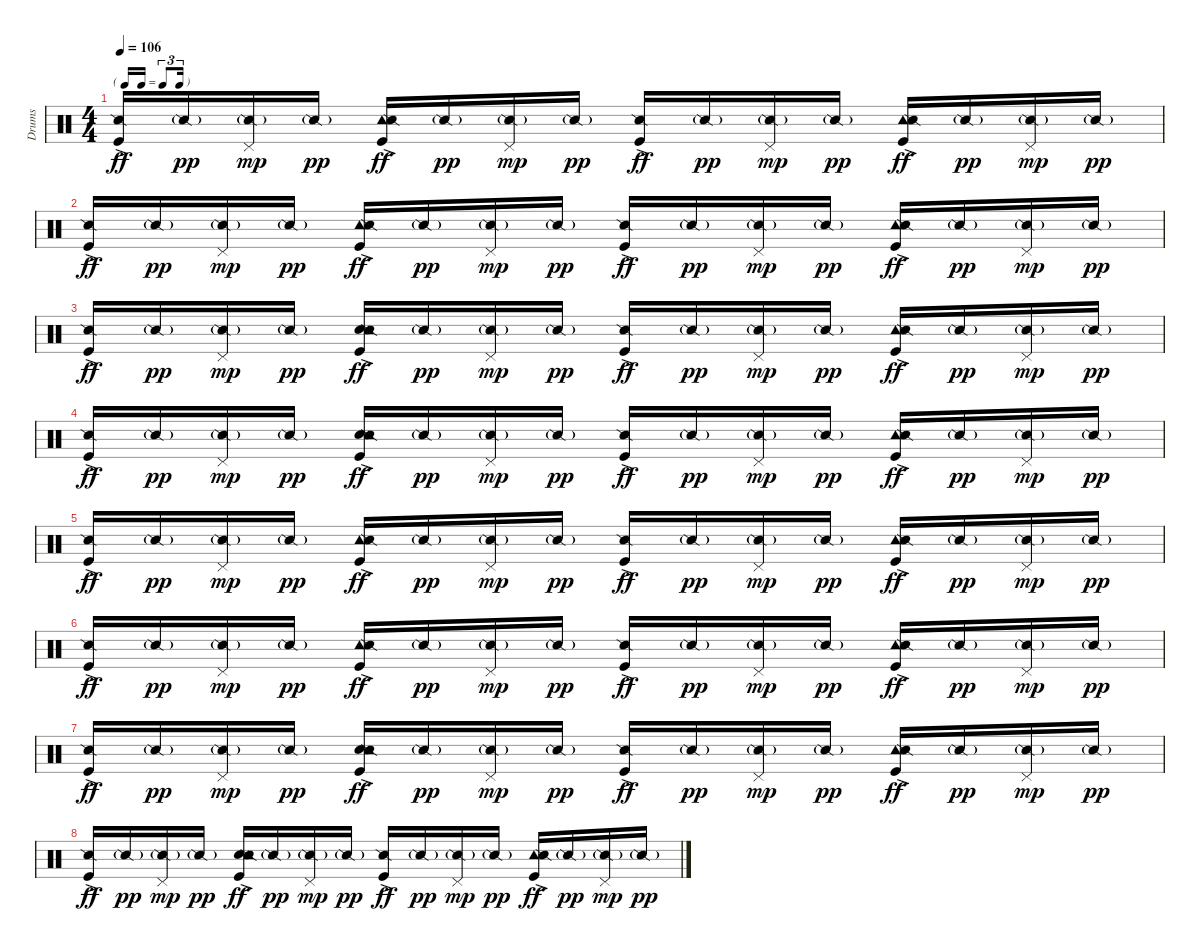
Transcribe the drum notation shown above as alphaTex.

\track ("Drums" "Drums") {instrument percussion}
\staff {score}
\articulation defaults
\ts (4 4)
\tf triplet16th
\tempo 106
\clef neutral
\ks c
("Kick (hit)"{ac} "Snare (side stick) 2").16{dy ff} "Snare (side stick) 2"{g}.16{dy pp} ("Pedal Hi-Hat (hit)" "Snare (side stick) 2"{g}).16{dy mp} "Snare (side stick) 2"{g}.16{dy pp} ("Kick (hit)"{ac} "Tambourine (hit)" "Snare (side stick) 2").16{dy ff} "Snare (side stick) 2"{g}.16{dy pp} ("Pedal Hi-Hat (hit)" "Snare (side stick) 2"{g}).16{dy mp} "Snare (side stick) 2"{g}.16{dy pp} ("Kick (hit)"{ac} "Snare (side stick) 2").16{dy ff} "Snare (side stick) 2"{g}.16{dy pp} ("Pedal Hi-Hat (hit)" "Snare (side stick) 2"{g}).16{dy mp} "Snare (side stick) 2"{g}.16{dy pp} ("Kick (hit)"{ac} "Tambourine (hit)" "Snare (side stick) 2").16{dy ff} "Snare (side stick) 2"{g}.16{dy pp} ("Pedal Hi-Hat (hit)" "Snare (side stick) 2"{g}).16{dy mp} "Snare (side stick) 2"{g}.16{dy pp} |
("Kick (hit)"{ac} "Snare (side stick) 2").16{dy ff} "Snare (side stick) 2"{g}.16{dy pp} ("Pedal Hi-Hat (hit)" "Snare (side stick) 2"{g}).16{dy mp} "Snare (side stick) 2"{g}.16{dy pp} ("Kick (hit)"{ac} "Tambourine (hit)" "Snare (side stick) 2").16{dy ff} "Snare (side stick) 2"{g}.16{dy pp} ("Pedal Hi-Hat (hit)" "Snare (side stick) 2"{g}).16{dy mp} "Snare (side stick) 2"{g}.16{dy pp} ("Kick (hit)"{ac} "Snare (side stick) 2").16{dy ff} "Snare (side stick) 2"{g}.16{dy pp} ("Pedal Hi-Hat (hit)" "Snare (side stick) 2"{g}).16{dy mp} "Snare (side stick) 2"{g}.16{dy pp} ("Kick (hit)"{ac} "Tambourine (hit)" "Snare (side stick) 2").16{dy ff} "Snare (side stick) 2"{g}.16{dy pp} ("Pedal Hi-Hat (hit)" "Snare (side stick) 2"{g}).16{dy mp} "Snare (side stick) 2"{g}.16{dy pp} |
("Kick (hit)"{ac} "Snare (side stick) 2").16{dy ff} "Snare (side stick) 2"{g}.16{dy pp} ("Pedal Hi-Hat (hit)" "Snare (side stick) 2"{g}).16{dy mp} "Snare (side stick) 2"{g}.16{dy pp} ("Kick (hit)"{ac} "Hand Clap (hit)" "Tambourine (hit)" "Snare (side stick) 2").16{dy ff} "Snare (side stick) 2"{g}.16{dy pp} ("Pedal Hi-Hat (hit)" "Snare (side stick) 2"{g}).16{dy mp} "Snare (side stick) 2"{g}.16{dy pp} ("Kick (hit)"{ac} "Snare (side stick) 2").16{dy ff} "Snare (side stick) 2"{g}.16{dy pp} ("Pedal Hi-Hat (hit)" "Snare (side stick) 2"{g}).16{dy mp} "Snare (side stick) 2"{g}.16{dy pp} ("Kick (hit)"{ac} "Tambourine (hit)" "Snare (side stick) 2").16{dy ff} "Snare (side stick) 2"{g}.16{dy pp} ("Pedal Hi-Hat (hit)" "Snare (side stick) 2"{g}).16{dy mp} "Snare (side stick) 2"{g}.16{dy pp} |
("Kick (hit)"{ac} "Snare (side stick) 2").16{dy ff} "Snare (side stick) 2"{g}.16{dy pp} ("Pedal Hi-Hat (hit)" "Snare (side stick) 2"{g}).16{dy mp} "Snare (side stick) 2"{g}.16{dy pp} ("Kick (hit)"{ac} "Hand Clap (hit)" "Tambourine (hit)" "Snare (side stick) 2").16{dy ff} "Snare (side stick) 2"{g}.16{dy pp} ("Pedal Hi-Hat (hit)" "Snare (side stick) 2"{g}).16{dy mp} "Snare (side stick) 2"{g}.16{dy pp} ("Kick (hit)"{ac} "Snare (side stick) 2").16{dy ff} "Snare (side stick) 2"{g}.16{dy pp} ("Pedal Hi-Hat (hit)" "Snare (side stick) 2"{g}).16{dy mp} "Snare (side stick) 2"{g}.16{dy pp} ("Kick (hit)"{ac} "Tambourine (hit)" "Snare (side stick) 2").16{dy ff} "Snare (side stick) 2"{g}.16{dy pp} ("Pedal Hi-Hat (hit)" "Snare (side stick) 2"{g}).16{dy mp} "Snare (side stick) 2"{g}.16{dy pp} |
("Kick (hit)"{ac} "Snare (side stick) 2").16{dy ff} "Snare (side stick) 2"{g}.16{dy pp} ("Pedal Hi-Hat (hit)" "Snare (side stick) 2"{g}).16{dy mp} "Snare (side stick) 2"{g}.16{dy pp} ("Kick (hit)"{ac} "Tambourine (hit)" "Snare (side stick) 2").16{dy ff} "Snare (side stick) 2"{g}.16{dy pp} ("Pedal Hi-Hat (hit)" "Snare (side stick) 2"{g}).16{dy mp} "Snare (side stick) 2"{g}.16{dy pp} ("Kick (hit)"{ac} "Snare (side stick) 2").16{dy ff} "Snare (side stick) 2"{g}.16{dy pp} ("Pedal Hi-Hat (hit)" "Snare (side stick) 2"{g}).16{dy mp} "Snare (side stick) 2"{g}.16{dy pp} ("Kick (hit)"{ac} "Tambourine (hit)" "Snare (side stick) 2").16{dy ff} "Snare (side stick) 2"{g}.16{dy pp} ("Pedal Hi-Hat (hit)" "Snare (side stick) 2"{g}).16{dy mp} "Snare (side stick) 2"{g}.16{dy pp} |
("Kick (hit)"{ac} "Snare (side stick) 2").16{dy ff} "Snare (side stick) 2"{g}.16{dy pp} ("Pedal Hi-Hat (hit)" "Snare (side stick) 2"{g}).16{dy mp} "Snare (side stick) 2"{g}.16{dy pp} ("Kick (hit)"{ac} "Tambourine (hit)" "Snare (side stick) 2").16{dy ff} "Snare (side stick) 2"{g}.16{dy pp} ("Pedal Hi-Hat (hit)" "Snare (side stick) 2"{g}).16{dy mp} "Snare (side stick) 2"{g}.16{dy pp} ("Kick (hit)"{ac} "Snare (side stick) 2").16{dy ff} "Snare (side stick) 2"{g}.16{dy pp} ("Pedal Hi-Hat (hit)" "Snare (side stick) 2"{g}).16{dy mp} "Snare (side stick) 2"{g}.16{dy pp} ("Kick (hit)"{ac} "Tambourine (hit)" "Snare (side stick) 2").16{dy ff} "Snare (side stick) 2"{g}.16{dy pp} ("Pedal Hi-Hat (hit)" "Snare (side stick) 2"{g}).16{dy mp} "Snare (side stick) 2"{g}.16{dy pp} |
("Kick (hit)"{ac} "Snare (side stick) 2").16{dy ff} "Snare (side stick) 2"{g}.16{dy pp} ("Pedal Hi-Hat (hit)" "Snare (side stick) 2"{g}).16{dy mp} "Snare (side stick) 2"{g}.16{dy pp} ("Kick (hit)"{ac} "Hand Clap (hit)" "Tambourine (hit)" "Snare (side stick) 2").16{dy ff} "Snare (side stick) 2"{g}.16{dy pp} ("Pedal Hi-Hat (hit)" "Snare (side stick) 2"{g}).16{dy mp} "Snare (side stick) 2"{g}.16{dy pp} ("Kick (hit)"{ac} "Snare (side stick) 2").16{dy ff} "Snare (side stick) 2"{g}.16{dy pp} ("Pedal Hi-Hat (hit)" "Snare (side stick) 2"{g}).16{dy mp} "Snare (side stick) 2"{g}.16{dy pp} ("Kick (hit)"{ac} "Tambourine (hit)" "Snare (side stick) 2").16{dy ff} "Snare (side stick) 2"{g}.16{dy pp} ("Pedal Hi-Hat (hit)" "Snare (side stick) 2"{g}).16{dy mp} "Snare (side stick) 2"{g}.16{dy pp} |
("Kick (hit)"{ac} "Snare (side stick) 2").16{dy ff} "Snare (side stick) 2"{g}.16{dy pp} ("Pedal Hi-Hat (hit)" "Snare (side stick) 2"{g}).16{dy mp} "Snare (side stick) 2"{g}.16{dy pp} ("Kick (hit)"{ac} "Hand Clap (hit)" "Tambourine (hit)" "Snare (side stick) 2").16{dy ff} "Snare (side stick) 2"{g}.16{dy pp} ("Pedal Hi-Hat (hit)" "Snare (side stick) 2"{g}).16{dy mp} "Snare (side stick) 2"{g}.16{dy pp} ("Kick (hit)"{ac} "Snare (side stick) 2").16{dy ff} "Snare (side stick) 2"{g}.16{dy pp} ("Pedal Hi-Hat (hit)" "Snare (side stick) 2"{g}).16{dy mp} "Snare (side stick) 2"{g}.16{dy pp} ("Kick (hit)"{ac} "Tambourine (hit)" "Snare (side stick) 2").16{dy ff} "Snare (side stick) 2"{g}.16{dy pp} ("Pedal Hi-Hat (hit)" "Snare (side stick) 2"{g}).16{dy mp} "Snare (side stick) 2"{g}.16{dy pp}
